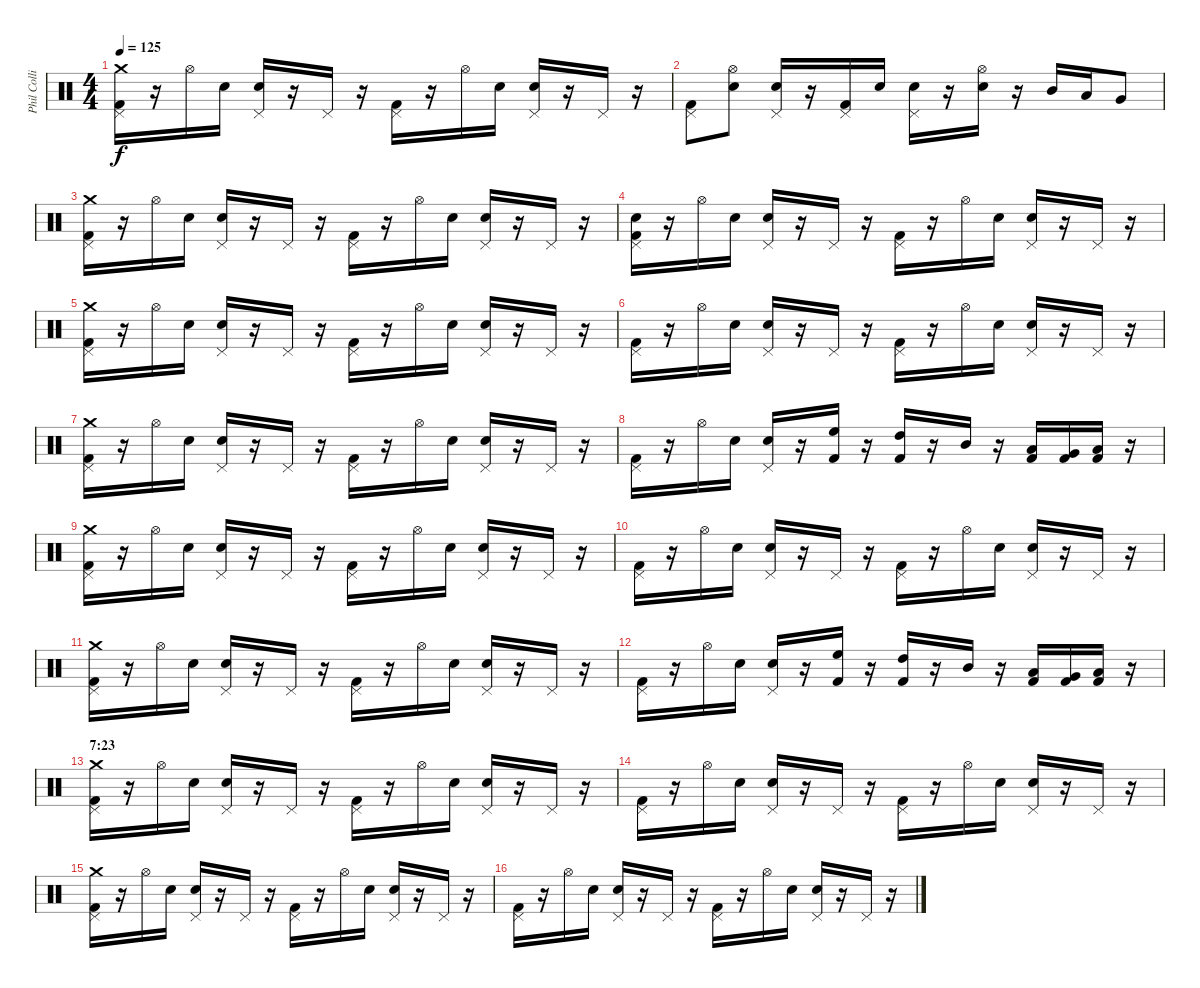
\track ("Phil Collins (drums)" "Phil Colli") {instrument percussion}
\staff {score}
\articulation defaults
\ts (4 4)
\tempo 125
\clef neutral
\ks c
("Crash medium (hit)" "Pedal Hi-Hat (hit)" "Kick (hit) 2").16{dy f} r.16 "Hi-Hat (open)".16 "Electric Snare (hit)".16 ("Pedal Hi-Hat (hit)" "Electric Snare (hit)").16 r.16 "Pedal Hi-Hat (hit)".16 r.16 ("Pedal Hi-Hat (hit)" "Kick (hit) 2").16 r.16 "Hi-Hat (open)".16 "Electric Snare (hit)".16 ("Pedal Hi-Hat (hit)" "Electric Snare (hit)").16 r.16 "Pedal Hi-Hat (hit)".16 r.16 |
("Pedal Hi-Hat (hit)" "Kick (hit) 2").8 ("Hi-Hat (open)" "Electric Snare (hit)").8 ("Pedal Hi-Hat (hit)" "Electric Snare (hit)").16 r.16 ("Pedal Hi-Hat (hit)" "Kick (hit) 2").16 "Electric Snare (hit)".16 ("Pedal Hi-Hat (hit)" "Electric Snare (hit)").16 r.16 ("Hi-Hat (open)" "Electric Snare (hit)").16 r.16 "Mid Tom (hit)".16 "Low Tom (hit)".16 "Very Low Tom (hit)".8 |
("Crash medium (hit)" "Pedal Hi-Hat (hit)" "Kick (hit) 2").16 r.16 "Hi-Hat (open)".16 "Electric Snare (hit)".16 ("Pedal Hi-Hat (hit)" "Electric Snare (hit)").16 r.16 "Pedal Hi-Hat (hit)".16 r.16 ("Pedal Hi-Hat (hit)" "Kick (hit) 2").16 r.16 "Hi-Hat (open)".16 "Electric Snare (hit)".16 ("Pedal Hi-Hat (hit)" "Electric Snare (hit)").16 r.16 "Pedal Hi-Hat (hit)".16 r.16 |
("Electric Snare (hit)" "Pedal Hi-Hat (hit)" "Kick (hit) 2").16 r.16 "Hi-Hat (open)".16 "Electric Snare (hit)".16 ("Pedal Hi-Hat (hit)" "Electric Snare (hit)").16 r.16 "Pedal Hi-Hat (hit)".16 r.16 ("Pedal Hi-Hat (hit)" "Kick (hit) 2").16 r.16 "Hi-Hat (open)".16 "Electric Snare (hit)".16 ("Pedal Hi-Hat (hit)" "Electric Snare (hit)").16 r.16 "Pedal Hi-Hat (hit)".16 r.16 |
("Crash medium (hit)" "Pedal Hi-Hat (hit)" "Kick (hit) 2").16 r.16 "Hi-Hat (open)".16 "Electric Snare (hit)".16 ("Pedal Hi-Hat (hit)" "Electric Snare (hit)").16 r.16 "Pedal Hi-Hat (hit)".16 r.16 ("Pedal Hi-Hat (hit)" "Kick (hit) 2").16 r.16 "Hi-Hat (open)".16 "Electric Snare (hit)".16 ("Pedal Hi-Hat (hit)" "Electric Snare (hit)").16 r.16 "Pedal Hi-Hat (hit)".16 r.16 |
("Pedal Hi-Hat (hit)" "Kick (hit) 2").16 r.16 "Hi-Hat (open)".16 "Electric Snare (hit)".16 ("Pedal Hi-Hat (hit)" "Electric Snare (hit)").16 r.16 "Pedal Hi-Hat (hit)".16 r.16 ("Pedal Hi-Hat (hit)" "Kick (hit) 2").16 r.16 "Hi-Hat (open)".16 "Electric Snare (hit)".16 ("Pedal Hi-Hat (hit)" "Electric Snare (hit)").16 r.16 "Pedal Hi-Hat (hit)".16 r.16 |
("Crash medium (hit)" "Pedal Hi-Hat (hit)" "Kick (hit) 2").16 r.16 "Hi-Hat (open)".16 "Electric Snare (hit)".16 ("Pedal Hi-Hat (hit)" "Electric Snare (hit)").16 r.16 "Pedal Hi-Hat (hit)".16 r.16 ("Pedal Hi-Hat (hit)" "Kick (hit) 2").16 r.16 "Hi-Hat (open)".16 "Electric Snare (hit)".16 ("Pedal Hi-Hat (hit)" "Electric Snare (hit)").16 r.16 "Pedal Hi-Hat (hit)".16 r.16 |
("Pedal Hi-Hat (hit)" "Kick (hit) 2").16 r.16 "Hi-Hat (open)".16 "Electric Snare (hit)".16 ("Pedal Hi-Hat (hit)" "Electric Snare (hit)").16 r.16 ("High Floor Tom (hit)" "Kick (hit) 2").16 r.16 ("High Tom (hit)" "Kick (hit) 2").16 r.16 "Mid Tom (hit)".16 r.16 ("Low Tom (hit)" "Kick (hit) 2").16 ("Very Low Tom (hit)" "Kick (hit) 2").16 ("Low Floor Tom (hit)" "Kick (hit) 2").16 r.16 |
("Crash medium (hit)" "Pedal Hi-Hat (hit)" "Kick (hit) 2").16 r.16 "Hi-Hat (open)".16 "Electric Snare (hit)".16 ("Pedal Hi-Hat (hit)" "Electric Snare (hit)").16 r.16 "Pedal Hi-Hat (hit)".16 r.16 ("Pedal Hi-Hat (hit)" "Kick (hit) 2").16 r.16 "Hi-Hat (open)".16 "Electric Snare (hit)".16 ("Pedal Hi-Hat (hit)" "Electric Snare (hit)").16 r.16 "Pedal Hi-Hat (hit)".16 r.16 |
("Pedal Hi-Hat (hit)" "Kick (hit) 2").16 r.16 "Hi-Hat (open)".16 "Electric Snare (hit)".16 ("Pedal Hi-Hat (hit)" "Electric Snare (hit)").16 r.16 "Pedal Hi-Hat (hit)".16 r.16 ("Pedal Hi-Hat (hit)" "Kick (hit) 2").16 r.16 "Hi-Hat (open)".16 "Electric Snare (hit)".16 ("Pedal Hi-Hat (hit)" "Electric Snare (hit)").16 r.16 "Pedal Hi-Hat (hit)".16 r.16 |
("Crash medium (hit)" "Pedal Hi-Hat (hit)" "Kick (hit) 2").16 r.16 "Hi-Hat (open)".16 "Electric Snare (hit)".16 ("Pedal Hi-Hat (hit)" "Electric Snare (hit)").16 r.16 "Pedal Hi-Hat (hit)".16 r.16 ("Pedal Hi-Hat (hit)" "Kick (hit) 2").16 r.16 "Hi-Hat (open)".16 "Electric Snare (hit)".16 ("Pedal Hi-Hat (hit)" "Electric Snare (hit)").16 r.16 "Pedal Hi-Hat (hit)".16 r.16 |
("Pedal Hi-Hat (hit)" "Kick (hit) 2").16 r.16 "Hi-Hat (open)".16 "Electric Snare (hit)".16 ("Pedal Hi-Hat (hit)" "Electric Snare (hit)").16 r.16 ("High Floor Tom (hit)" "Kick (hit) 2").16 r.16 ("High Tom (hit)" "Kick (hit) 2").16 r.16 "Mid Tom (hit)".16 r.16 ("Low Tom (hit)" "Kick (hit) 2").16 ("Very Low Tom (hit)" "Kick (hit) 2").16 ("Low Floor Tom (hit)" "Kick (hit) 2").16 r.16 |
\section ("" "7:23")
("Crash medium (hit)" "Pedal Hi-Hat (hit)" "Kick (hit) 2").16 r.16 "Hi-Hat (open)".16 "Electric Snare (hit)".16 ("Pedal Hi-Hat (hit)" "Electric Snare (hit)").16 r.16 "Pedal Hi-Hat (hit)".16 r.16 ("Pedal Hi-Hat (hit)" "Kick (hit) 2").16 r.16 "Hi-Hat (open)".16 "Electric Snare (hit)".16 ("Pedal Hi-Hat (hit)" "Electric Snare (hit)").16 r.16 "Pedal Hi-Hat (hit)".16 r.16 |
("Pedal Hi-Hat (hit)" "Kick (hit) 2").16 r.16 "Hi-Hat (open)".16 "Electric Snare (hit)".16 ("Pedal Hi-Hat (hit)" "Electric Snare (hit)").16 r.16 "Pedal Hi-Hat (hit)".16 r.16 ("Pedal Hi-Hat (hit)" "Kick (hit) 2").16 r.16 "Hi-Hat (open)".16 "Electric Snare (hit)".16 ("Pedal Hi-Hat (hit)" "Electric Snare (hit)").16 r.16 "Pedal Hi-Hat (hit)".16 r.16 |
("Crash medium (hit)" "Pedal Hi-Hat (hit)" "Kick (hit) 2").16 r.16 "Hi-Hat (open)".16 "Electric Snare (hit)".16 ("Pedal Hi-Hat (hit)" "Electric Snare (hit)").16 r.16 "Pedal Hi-Hat (hit)".16 r.16 ("Pedal Hi-Hat (hit)" "Kick (hit) 2").16 r.16 "Hi-Hat (open)".16 "Electric Snare (hit)".16 ("Pedal Hi-Hat (hit)" "Electric Snare (hit)").16 r.16 "Pedal Hi-Hat (hit)".16 r.16 |
("Pedal Hi-Hat (hit)" "Kick (hit) 2").16 r.16 "Hi-Hat (open)".16 "Electric Snare (hit)".16 ("Pedal Hi-Hat (hit)" "Electric Snare (hit)").16 r.16 "Pedal Hi-Hat (hit)".16 r.16 ("Pedal Hi-Hat (hit)" "Kick (hit) 2").16 r.16 "Hi-Hat (open)".16 "Electric Snare (hit)".16 ("Pedal Hi-Hat (hit)" "Electric Snare (hit)").16 r.16 "Pedal Hi-Hat (hit)".16 r.16
